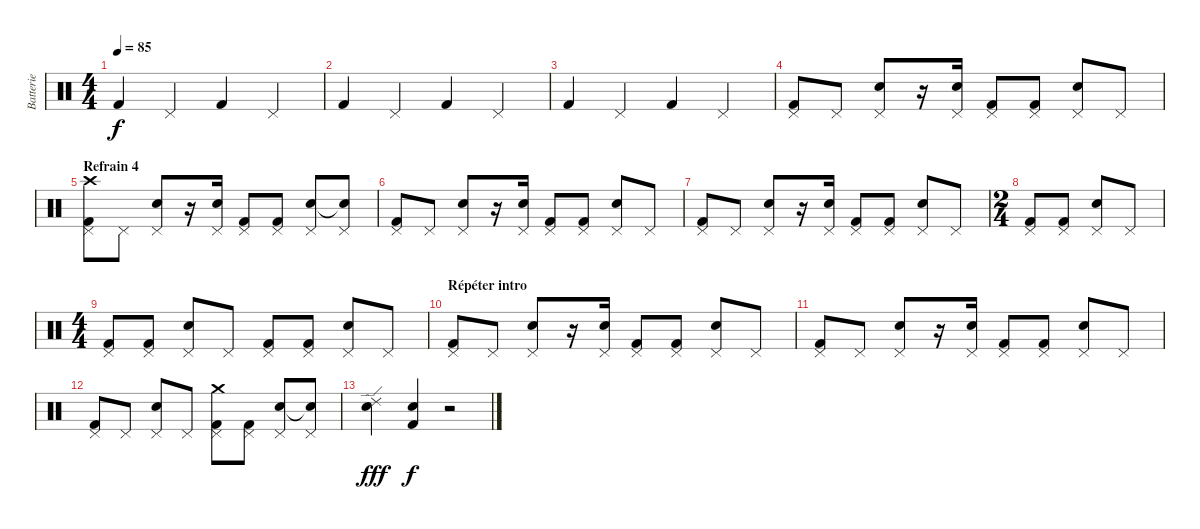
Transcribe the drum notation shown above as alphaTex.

\track ("Batterie" "Batterie") {instrument percussion}
\staff {score}
\articulation defaults
\ts (4 4)
\tempo 85
\clef neutral
\ks c "Kick (hit) 2".4{dy f} "Pedal Hi-Hat (hit)".4 "Kick (hit) 2".4 "Pedal Hi-Hat (hit)".4
|
"Kick (hit) 2".4 "Pedal Hi-Hat (hit)".4 "Kick (hit) 2".4 "Pedal Hi-Hat (hit)".4 |
"Kick (hit) 2".4 "Pedal Hi-Hat (hit)".4 "Kick (hit) 2".4 "Pedal Hi-Hat (hit)".4 |
("Pedal Hi-Hat (hit)" "Kick (hit) 2").8 "Pedal Hi-Hat (hit)".8 ("Pedal Hi-Hat (hit)" "Electric Snare (hit)").8 r.16 ("Pedal Hi-Hat (hit)" "Electric Snare (hit)").16 ("Pedal Hi-Hat (hit)" "Kick (hit) 2").8 ("Pedal Hi-Hat (hit)" "Kick (hit) 2").8 ("Pedal Hi-Hat (hit)" "Electric Snare (hit)").8 "Pedal Hi-Hat (hit)".8 |
\section ("" "Refrain 4")
("Pedal Hi-Hat (hit)" "Crash high (hit)" "Kick (hit) 2").8 "Pedal Hi-Hat (hit)".8 ("Pedal Hi-Hat (hit)" "Electric Snare (hit)").8 r.16 ("Pedal Hi-Hat (hit)" "Electric Snare (hit)").16 ("Pedal Hi-Hat (hit)" "Kick (hit) 2").8 ("Pedal Hi-Hat (hit)" "Kick (hit) 2").8 ("Pedal Hi-Hat (hit)" "Electric Snare (hit)").8 ("Pedal Hi-Hat (hit)" "Snare (hit)"{t}).8 |
("Pedal Hi-Hat (hit)" "Kick (hit) 2").8 "Pedal Hi-Hat (hit)".8 ("Pedal Hi-Hat (hit)" "Electric Snare (hit)").8 r.16 ("Pedal Hi-Hat (hit)" "Electric Snare (hit)").16 ("Pedal Hi-Hat (hit)" "Kick (hit) 2").8 ("Pedal Hi-Hat (hit)" "Kick (hit) 2").8 ("Pedal Hi-Hat (hit)" "Electric Snare (hit)").8 "Pedal Hi-Hat (hit)".8 |
("Pedal Hi-Hat (hit)" "Kick (hit) 2").8 "Pedal Hi-Hat (hit)".8 ("Pedal Hi-Hat (hit)" "Electric Snare (hit)").8 r.16 ("Pedal Hi-Hat (hit)" "Electric Snare (hit)").16 ("Pedal Hi-Hat (hit)" "Kick (hit) 2").8 ("Pedal Hi-Hat (hit)" "Kick (hit) 2").8 ("Pedal Hi-Hat (hit)" "Electric Snare (hit)").8 "Pedal Hi-Hat (hit)".8 |
\ts (2 4)
("Pedal Hi-Hat (hit)" "Kick (hit) 2").8 ("Pedal Hi-Hat (hit)" "Kick (hit) 2").8 ("Pedal Hi-Hat (hit)" "Electric Snare (hit)").8 "Pedal Hi-Hat (hit)".8 |
\ts (4 4)
("Pedal Hi-Hat (hit)" "Kick (hit) 2").8 ("Pedal Hi-Hat (hit)" "Kick (hit) 2").8 ("Pedal Hi-Hat (hit)" "Electric Snare (hit)").8 "Pedal Hi-Hat (hit)".8 ("Pedal Hi-Hat (hit)" "Kick (hit) 2").8 ("Pedal Hi-Hat (hit)" "Kick (hit) 2").8 ("Pedal Hi-Hat (hit)" "Electric Snare (hit)").8 "Pedal Hi-Hat (hit)".8 |
\section ("" "Répéter intro")
("Pedal Hi-Hat (hit)" "Kick (hit) 2").8 "Pedal Hi-Hat (hit)".8 ("Pedal Hi-Hat (hit)" "Electric Snare (hit)").8 r.16 ("Pedal Hi-Hat (hit)" "Electric Snare (hit)").16 ("Pedal Hi-Hat (hit)" "Kick (hit) 2").8 ("Pedal Hi-Hat (hit)" "Kick (hit) 2").8 ("Pedal Hi-Hat (hit)" "Electric Snare (hit)").8 "Pedal Hi-Hat (hit)".8 |
("Pedal Hi-Hat (hit)" "Kick (hit) 2").8 "Pedal Hi-Hat (hit)".8 ("Pedal Hi-Hat (hit)" "Electric Snare (hit)").8 r.16 ("Pedal Hi-Hat (hit)" "Electric Snare (hit)").16 ("Pedal Hi-Hat (hit)" "Kick (hit) 2").8 ("Pedal Hi-Hat (hit)" "Kick (hit) 2").8 ("Pedal Hi-Hat (hit)" "Electric Snare (hit)").8 "Pedal Hi-Hat (hit)".8 |
("Pedal Hi-Hat (hit)" "Kick (hit) 2").8 "Pedal Hi-Hat (hit)".8 ("Pedal Hi-Hat (hit)" "Electric Snare (hit)").8 "Pedal Hi-Hat (hit)".8 ("Pedal Hi-Hat (hit)" "Crash medium (hit)" "Kick (hit) 2").8 ("Pedal Hi-Hat (hit)" "Kick (hit) 2").8 ("Pedal Hi-Hat (hit)" "Electric Snare (hit)").8 ("Pedal Hi-Hat (hit)" "Snare (hit)"{t}).8 |
("Ride (edge) 2" "Electric Snare (hit)").4{dy fff} ("Kick (hit) 2" "Electric Snare (hit)").4{dy f} r.2
